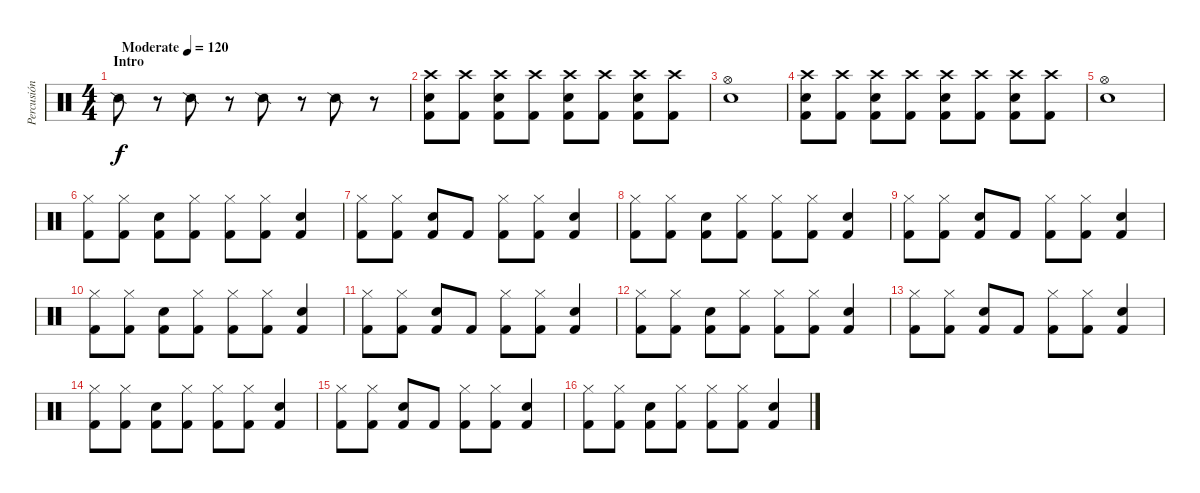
\track ("Percusión" "Percusión") {instrument percussion}
\staff {score}
\articulation defaults
\ts (4 4)
\section ("" "Intro")
\tempo (120 "Moderate")
\clef neutral
\ks c "Snare (side stick) 2".8{dy f}
r.8 "Snare (side stick) 2".8 r.8 "Snare (side stick) 2".8 r.8 "Snare (side stick) 2".8 r.8 |
("Crash high (hit)" "Snare (hit) 2" "Kick (hit) 2").8 ("Crash high (hit)" "Kick (hit) 2").8 ("Crash high (hit)" "Snare (hit) 2" "Kick (hit) 2").8 ("Crash high (hit)" "Kick (hit) 2").8 ("Crash high (hit)" "Snare (hit) 2" "Kick (hit) 2").8 ("Crash high (hit)" "Kick (hit) 2").8 ("Crash high (hit)" "Snare (hit) 2" "Kick (hit) 2").8 ("Crash high (hit)" "Kick (hit) 2").8 |
("Hi-Hat (open)" "Snare (hit) 2").1 |
("Crash high (hit)" "Snare (hit) 2" "Kick (hit) 2").8 ("Crash high (hit)" "Kick (hit) 2").8 ("Crash high (hit)" "Snare (hit) 2" "Kick (hit) 2").8 ("Crash high (hit)" "Kick (hit) 2").8 ("Crash high (hit)" "Snare (hit) 2" "Kick (hit) 2").8 ("Crash high (hit)" "Kick (hit) 2").8 ("Crash high (hit)" "Snare (hit) 2" "Kick (hit) 2").8 ("Crash high (hit)" "Kick (hit) 2").8 |
("Hi-Hat (open)" "Snare (hit) 2").1 |
("Hi-Hat (closed)" "Kick (hit) 2").8 ("Hi-Hat (closed)" "Kick (hit) 2").8 ("Snare (hit) 2" "Kick (hit) 2").8 ("Hi-Hat (closed)" "Kick (hit) 2").8 ("Hi-Hat (closed)" "Kick (hit) 2").8 ("Hi-Hat (closed)" "Kick (hit) 2").8 ("Snare (hit) 2" "Kick (hit) 2").4 |
("Hi-Hat (closed)" "Kick (hit) 2").8 ("Hi-Hat (closed)" "Kick (hit) 2").8 ("Snare (hit) 2" "Kick (hit) 2").8 "Kick (hit) 2".8 ("Hi-Hat (closed)" "Kick (hit) 2").8 ("Hi-Hat (closed)" "Kick (hit) 2").8 ("Snare (hit) 2" "Kick (hit) 2").4 |
("Hi-Hat (closed)" "Kick (hit) 2").8 ("Hi-Hat (closed)" "Kick (hit) 2").8 ("Snare (hit) 2" "Kick (hit) 2").8 ("Hi-Hat (closed)" "Kick (hit) 2").8 ("Hi-Hat (closed)" "Kick (hit) 2").8 ("Hi-Hat (closed)" "Kick (hit) 2").8 ("Snare (hit) 2" "Kick (hit) 2").4 |
("Hi-Hat (closed)" "Kick (hit) 2").8 ("Hi-Hat (closed)" "Kick (hit) 2").8 ("Snare (hit) 2" "Kick (hit) 2").8 "Kick (hit) 2".8 ("Hi-Hat (closed)" "Kick (hit) 2").8 ("Hi-Hat (closed)" "Kick (hit) 2").8 ("Snare (hit) 2" "Kick (hit) 2").4 |
("Hi-Hat (closed)" "Kick (hit) 2").8 ("Hi-Hat (closed)" "Kick (hit) 2").8 ("Snare (hit) 2" "Kick (hit) 2").8 ("Hi-Hat (closed)" "Kick (hit) 2").8 ("Hi-Hat (closed)" "Kick (hit) 2").8 ("Hi-Hat (closed)" "Kick (hit) 2").8 ("Snare (hit) 2" "Kick (hit) 2").4 |
("Hi-Hat (closed)" "Kick (hit) 2").8 ("Hi-Hat (closed)" "Kick (hit) 2").8 ("Snare (hit) 2" "Kick (hit) 2").8 "Kick (hit) 2".8 ("Hi-Hat (closed)" "Kick (hit) 2").8 ("Hi-Hat (closed)" "Kick (hit) 2").8 ("Snare (hit) 2" "Kick (hit) 2").4 |
("Hi-Hat (closed)" "Kick (hit) 2").8 ("Hi-Hat (closed)" "Kick (hit) 2").8 ("Snare (hit) 2" "Kick (hit) 2").8 ("Hi-Hat (closed)" "Kick (hit) 2").8 ("Hi-Hat (closed)" "Kick (hit) 2").8 ("Hi-Hat (closed)" "Kick (hit) 2").8 ("Snare (hit) 2" "Kick (hit) 2").4 |
("Hi-Hat (closed)" "Kick (hit) 2").8 ("Hi-Hat (closed)" "Kick (hit) 2").8 ("Snare (hit) 2" "Kick (hit) 2").8 "Kick (hit) 2".8 ("Hi-Hat (closed)" "Kick (hit) 2").8 ("Hi-Hat (closed)" "Kick (hit) 2").8 ("Snare (hit) 2" "Kick (hit) 2").4 |
("Hi-Hat (closed)" "Kick (hit) 2").8 ("Hi-Hat (closed)" "Kick (hit) 2").8 ("Snare (hit) 2" "Kick (hit) 2").8 ("Hi-Hat (closed)" "Kick (hit) 2").8 ("Hi-Hat (closed)" "Kick (hit) 2").8 ("Hi-Hat (closed)" "Kick (hit) 2").8 ("Snare (hit) 2" "Kick (hit) 2").4 |
("Hi-Hat (closed)" "Kick (hit) 2").8 ("Hi-Hat (closed)" "Kick (hit) 2").8 ("Snare (hit) 2" "Kick (hit) 2").8 "Kick (hit) 2".8 ("Hi-Hat (closed)" "Kick (hit) 2").8 ("Hi-Hat (closed)" "Kick (hit) 2").8 ("Snare (hit) 2" "Kick (hit) 2").4 |
("Hi-Hat (closed)" "Kick (hit) 2").8 ("Hi-Hat (closed)" "Kick (hit) 2").8 ("Snare (hit) 2" "Kick (hit) 2").8 ("Hi-Hat (closed)" "Kick (hit) 2").8 ("Hi-Hat (closed)" "Kick (hit) 2").8 ("Hi-Hat (closed)" "Kick (hit) 2").8 ("Snare (hit) 2" "Kick (hit) 2").4
